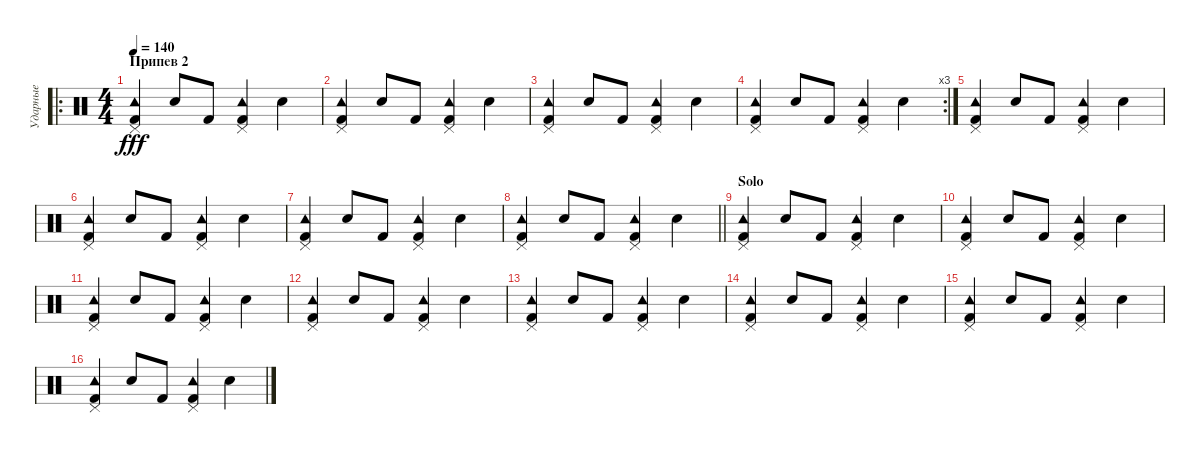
\track ("Ударные" "Ударные") {instrument percussion}
\staff {score}
\articulation defaults
\ro
\ts (4 4)
\section ("" "Припев 2")
\tempo 140
\clef neutral
\ks c
("Tambourine (hit)" "Pedal Hi-Hat (hit)" "Kick (hit) 2").4{dy fff} "Electric Snare (hit)".8 "Kick (hit) 2".8 ("Tambourine (hit)" "Pedal Hi-Hat (hit)" "Kick (hit) 2").4 "Electric Snare (hit)".4 |
("Tambourine (hit)" "Pedal Hi-Hat (hit)" "Kick (hit) 2").4 "Electric Snare (hit)".8 "Kick (hit) 2".8 ("Tambourine (hit)" "Pedal Hi-Hat (hit)" "Kick (hit) 2").4 "Electric Snare (hit)".4 |
("Tambourine (hit)" "Pedal Hi-Hat (hit)" "Kick (hit) 2").4 "Electric Snare (hit)".8 "Kick (hit) 2".8 ("Tambourine (hit)" "Pedal Hi-Hat (hit)" "Kick (hit) 2").4 "Electric Snare (hit)".4 |
\rc 3
("Tambourine (hit)" "Pedal Hi-Hat (hit)" "Kick (hit) 2").4 "Electric Snare (hit)".8 "Kick (hit) 2".8 ("Tambourine (hit)" "Pedal Hi-Hat (hit)" "Kick (hit) 2").4 "Electric Snare (hit)".4 |
("Tambourine (hit)" "Pedal Hi-Hat (hit)" "Kick (hit) 2").4 "Electric Snare (hit)".8 "Kick (hit) 2".8 ("Tambourine (hit)" "Pedal Hi-Hat (hit)" "Kick (hit) 2").4 "Electric Snare (hit)".4 |
("Tambourine (hit)" "Pedal Hi-Hat (hit)" "Kick (hit) 2").4 "Electric Snare (hit)".8 "Kick (hit) 2".8 ("Tambourine (hit)" "Pedal Hi-Hat (hit)" "Kick (hit) 2").4 "Electric Snare (hit)".4 |
("Tambourine (hit)" "Pedal Hi-Hat (hit)" "Kick (hit) 2").4 "Electric Snare (hit)".8 "Kick (hit) 2".8 ("Tambourine (hit)" "Pedal Hi-Hat (hit)" "Kick (hit) 2").4 "Electric Snare (hit)".4 |
\barLineRight lightlight
("Tambourine (hit)" "Pedal Hi-Hat (hit)" "Kick (hit) 2").4 "Electric Snare (hit)".8 "Kick (hit) 2".8 ("Tambourine (hit)" "Pedal Hi-Hat (hit)" "Kick (hit) 2").4 "Electric Snare (hit)".4 |
\section ("" "Solo")
("Tambourine (hit)" "Pedal Hi-Hat (hit)" "Kick (hit) 2").4 "Electric Snare (hit)".8 "Kick (hit) 2".8 ("Tambourine (hit)" "Pedal Hi-Hat (hit)" "Kick (hit) 2").4 "Electric Snare (hit)".4 |
("Tambourine (hit)" "Pedal Hi-Hat (hit)" "Kick (hit) 2").4 "Electric Snare (hit)".8 "Kick (hit) 2".8 ("Tambourine (hit)" "Pedal Hi-Hat (hit)" "Kick (hit) 2").4 "Electric Snare (hit)".4 |
("Tambourine (hit)" "Pedal Hi-Hat (hit)" "Kick (hit) 2").4 "Electric Snare (hit)".8 "Kick (hit) 2".8 ("Tambourine (hit)" "Pedal Hi-Hat (hit)" "Kick (hit) 2").4 "Electric Snare (hit)".4 |
("Tambourine (hit)" "Pedal Hi-Hat (hit)" "Kick (hit) 2").4 "Electric Snare (hit)".8 "Kick (hit) 2".8 ("Tambourine (hit)" "Pedal Hi-Hat (hit)" "Kick (hit) 2").4 "Electric Snare (hit)".4 |
("Tambourine (hit)" "Pedal Hi-Hat (hit)" "Kick (hit) 2").4 "Electric Snare (hit)".8 "Kick (hit) 2".8 ("Tambourine (hit)" "Pedal Hi-Hat (hit)" "Kick (hit) 2").4 "Electric Snare (hit)".4 |
("Tambourine (hit)" "Pedal Hi-Hat (hit)" "Kick (hit) 2").4 "Electric Snare (hit)".8 "Kick (hit) 2".8 ("Tambourine (hit)" "Pedal Hi-Hat (hit)" "Kick (hit) 2").4 "Electric Snare (hit)".4 |
("Tambourine (hit)" "Pedal Hi-Hat (hit)" "Kick (hit) 2").4 "Electric Snare (hit)".8 "Kick (hit) 2".8 ("Tambourine (hit)" "Pedal Hi-Hat (hit)" "Kick (hit) 2").4 "Electric Snare (hit)".4 |
("Tambourine (hit)" "Pedal Hi-Hat (hit)" "Kick (hit) 2").4 "Electric Snare (hit)".8 "Kick (hit) 2".8 ("Tambourine (hit)" "Pedal Hi-Hat (hit)" "Kick (hit) 2").4 "Electric Snare (hit)".4
